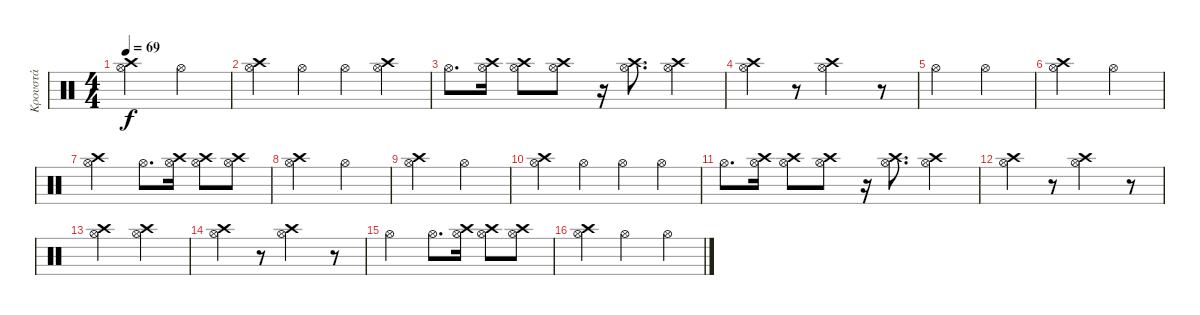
\track ("Κρουστά" "Κρουστά") {instrument percussion}
\staff {score}
\articulation defaults
\ts (4 4)
\tempo 69
\clef neutral
\ks c
("Crash high (hit)" "Hi-Hat (open)").2{dy f} "Hi-Hat (open)".2 |
("Crash high (hit)" "Hi-Hat (open)").4 "Hi-Hat (open)".4 "Hi-Hat (open)".4 ("Crash high (hit)" "Hi-Hat (open)").4 |
"Hi-Hat (open)".8{d} ("Hi-Hat (open)" "Crash high (hit)").16 ("Hi-Hat (open)" "Crash high (hit)").8 ("Hi-Hat (open)" "Crash high (hit)").8 r.16 ("Hi-Hat (open)" "Crash high (hit)").8{d} ("Hi-Hat (open)" "Crash high (hit)").4 |
("Crash high (hit)" "Hi-Hat (open)").4 r.8 ("Hi-Hat (open)" "Crash high (hit)").2 r.8 |
"Hi-Hat (open)".2 "Hi-Hat (open)".2 |
("Crash high (hit)" "Hi-Hat (open)").2 "Hi-Hat (open)".2 |
("Crash high (hit)" "Hi-Hat (open)").2 "Hi-Hat (open)".8{d} ("Crash high (hit)" "Hi-Hat (open)").16 ("Hi-Hat (open)" "Crash high (hit)").8 ("Hi-Hat (open)" "Crash high (hit)").8 |
("Hi-Hat (open)" "Crash high (hit)").2 "Hi-Hat (open)".2 |
("Hi-Hat (open)" "Crash high (hit)").2 "Hi-Hat (open)".2 |
("Crash high (hit)" "Hi-Hat (open)").4 "Hi-Hat (open)".4 "Hi-Hat (open)".4 "Hi-Hat (open)".4 |
"Hi-Hat (open)".8{d} ("Hi-Hat (open)" "Crash high (hit)").16 ("Hi-Hat (open)" "Crash high (hit)").8 ("Hi-Hat (open)" "Crash high (hit)").8 r.16 ("Hi-Hat (open)" "Crash high (hit)").8{d} ("Hi-Hat (open)" "Crash high (hit)").4 |
("Crash high (hit)" "Hi-Hat (open)").4 r.8 ("Hi-Hat (open)" "Crash high (hit)").2 r.8 |
("Hi-Hat (open)" "Crash high (hit)").2 ("Hi-Hat (open)" "Crash high (hit)").2 |
("Hi-Hat (open)" "Crash high (hit)").4 r.8 ("Hi-Hat (open)" "Crash high (hit)").2 r.8 |
"Hi-Hat (open)".2 "Hi-Hat (open)".8{d} ("Hi-Hat (open)" "Crash high (hit)").16 ("Hi-Hat (open)" "Crash high (hit)").8 ("Hi-Hat (open)" "Crash high (hit)").8 |
("Hi-Hat (open)" "Crash high (hit)").4 "Hi-Hat (open)".2 "Hi-Hat (open)".4
